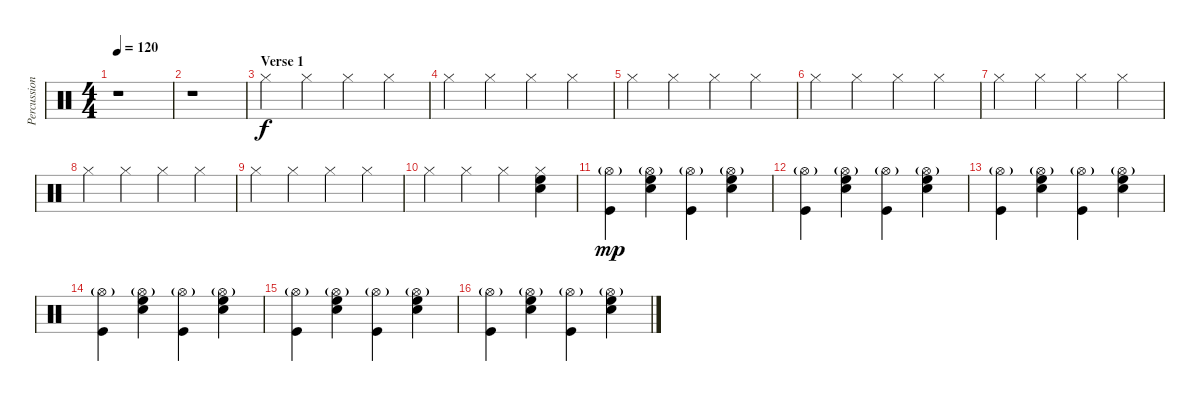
\track ("Percussion" "Percussion") {instrument percussion}
\staff {score}
\articulation defaults
\ts (4 4)
\tempo 120
\clef neutral
\ks c
r.1{dy f} |
r.1 |
\section ("" "Verse 1")
"Hi-Hat (closed)".4 "Hi-Hat (closed)".4 "Hi-Hat (closed)".4 "Hi-Hat (closed)".4 |
"Hi-Hat (closed)".4 "Hi-Hat (closed)".4 "Hi-Hat (closed)".4 "Hi-Hat (closed)".4 |
"Hi-Hat (closed)".4 "Hi-Hat (closed)".4 "Hi-Hat (closed)".4 "Hi-Hat (closed)".4 |
"Hi-Hat (closed)".4 "Hi-Hat (closed)".4 "Hi-Hat (closed)".4 "Hi-Hat (closed)".4 |
"Hi-Hat (closed)".4 "Hi-Hat (closed)".4 "Hi-Hat (closed)".4 "Hi-Hat (closed)".4 |
"Hi-Hat (closed)".4 "Hi-Hat (closed)".4 "Hi-Hat (closed)".4 "Hi-Hat (closed)".4 |
"Hi-Hat (closed)".4 "Hi-Hat (closed)".4 "Hi-Hat (closed)".4 "Hi-Hat (closed)".4 |
"Hi-Hat (closed)".4 "Hi-Hat (closed)".4 "Hi-Hat (closed)".4 ("Hi-Hat (closed)" "High Floor Tom (hit)" "Electric Snare (hit)").4 |
("Hi-Hat (open)"{g} "Kick (hit)").4{dy mp} ("Hi-Hat (open)"{g} "High Floor Tom (hit)" "Electric Snare (hit)").4 ("Hi-Hat (open)"{g} "Kick (hit)").4 ("Hi-Hat (open)"{g} "High Floor Tom (hit)" "Electric Snare (hit)").4 |
("Hi-Hat (open)"{g} "Kick (hit)").4 ("Hi-Hat (open)"{g} "High Floor Tom (hit)" "Electric Snare (hit)").4 ("Hi-Hat (open)"{g} "Kick (hit)").4 ("Hi-Hat (open)"{g} "High Floor Tom (hit)" "Electric Snare (hit)").4 |
("Hi-Hat (open)"{g} "Kick (hit)").4 ("Hi-Hat (open)"{g} "High Floor Tom (hit)" "Electric Snare (hit)").4 ("Hi-Hat (open)"{g} "Kick (hit)").4 ("Hi-Hat (open)"{g} "High Floor Tom (hit)" "Electric Snare (hit)").4 |
("Hi-Hat (open)"{g} "Kick (hit)").4 ("Hi-Hat (open)"{g} "High Floor Tom (hit)" "Electric Snare (hit)").4 ("Hi-Hat (open)"{g} "Kick (hit)").4 ("Hi-Hat (open)"{g} "High Floor Tom (hit)" "Electric Snare (hit)").4 |
("Hi-Hat (open)"{g} "Kick (hit)").4 ("Hi-Hat (open)"{g} "High Floor Tom (hit)" "Electric Snare (hit)").4 ("Hi-Hat (open)"{g} "Kick (hit)").4 ("Hi-Hat (open)"{g} "High Floor Tom (hit)" "Electric Snare (hit)").4 |
("Hi-Hat (open)"{g} "Kick (hit)").4 ("Hi-Hat (open)"{g} "High Floor Tom (hit)" "Electric Snare (hit)").4 ("Hi-Hat (open)"{g} "Kick (hit)").4 ("Hi-Hat (open)"{g} "High Floor Tom (hit)" "Electric Snare (hit)").4
